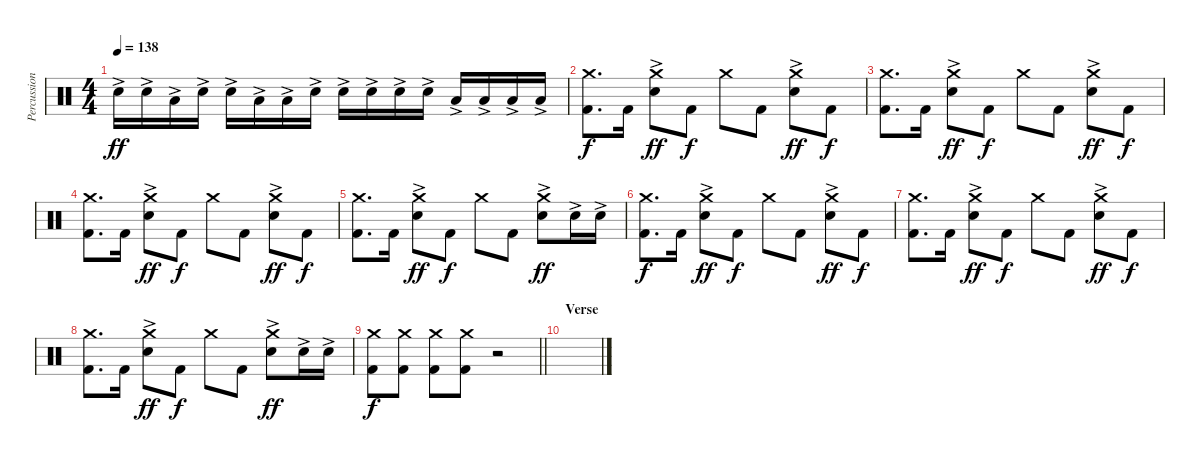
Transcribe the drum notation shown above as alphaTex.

\track ("Percussion" "Percussion") {instrument percussion}
\staff {score}
\articulation defaults
\ts (4 4)
\tempo 138
\clef neutral
\ks c "Electric Snare (hit)"{ac}.16{dy ff} "Electric Snare (hit)"{ac}.16 "Low Tom (hit)"{ac}.16 "Electric Snare (hit)"{ac}.16 "Electric Snare (hit)"{ac}.16 "Low Tom (hit)"{ac}.16 "Low Tom (hit)"{ac}.16 "Electric Snare (hit)"{ac}.16 "Electric Snare (hit)"{ac}.16 "Electric Snare (hit)"{ac}.16 "Electric Snare (hit)"{ac}.16 "Electric Snare (hit)"{ac}.16 "Low Tom (hit)"{ac}.16 "Low Tom (hit)"{ac}.16 "Low Tom (hit)"{ac}.16 "Low Tom (hit)"{ac}.16
|
("Crash medium (hit)" "Kick (hit) 2").8{d dy f} "Kick (hit) 2".16 ("Crash medium (hit)" "Electric Snare (hit)"{ac}).8{dy ff} "Kick (hit) 2".8{dy f} "Crash medium (hit)".8 "Kick (hit) 2".8 ("Crash medium (hit)" "Electric Snare (hit)"{ac}).8{dy ff} "Kick (hit) 2".8{dy f} |
("Crash medium (hit)" "Kick (hit) 2").8{d} "Kick (hit) 2".16 ("Crash medium (hit)" "Electric Snare (hit)"{ac}).8{dy ff} "Kick (hit) 2".8{dy f} "Crash medium (hit)".8 "Kick (hit) 2".8 ("Crash medium (hit)" "Electric Snare (hit)"{ac}).8{dy ff} "Kick (hit) 2".8{dy f} |
("Crash medium (hit)" "Kick (hit) 2").8{d} "Kick (hit) 2".16 ("Crash medium (hit)" "Electric Snare (hit)"{ac}).8{dy ff} "Kick (hit) 2".8{dy f} "Crash medium (hit)".8 "Kick (hit) 2".8 ("Crash medium (hit)" "Electric Snare (hit)"{ac}).8{dy ff} "Kick (hit) 2".8{dy f} |
("Crash medium (hit)" "Kick (hit) 2").8{d} "Kick (hit) 2".16 ("Crash medium (hit)" "Electric Snare (hit)"{ac}).8{dy ff} "Kick (hit) 2".8{dy f} "Crash medium (hit)".8 "Kick (hit) 2".8 ("Crash medium (hit)" "Electric Snare (hit)"{ac}).8{dy ff} "Electric Snare (hit)"{ac}.16 "Electric Snare (hit)"{ac}.16 |
("Crash medium (hit)" "Kick (hit) 2").8{d dy f} "Kick (hit) 2".16 ("Crash medium (hit)" "Electric Snare (hit)"{ac}).8{dy ff} "Kick (hit) 2".8{dy f} "Crash medium (hit)".8 "Kick (hit) 2".8 ("Crash medium (hit)" "Electric Snare (hit)"{ac}).8{dy ff} "Kick (hit) 2".8{dy f} |
("Crash medium (hit)" "Kick (hit) 2").8{d} "Kick (hit) 2".16 ("Crash medium (hit)" "Electric Snare (hit)"{ac}).8{dy ff} "Kick (hit) 2".8{dy f} "Crash medium (hit)".8 "Kick (hit) 2".8 ("Crash medium (hit)" "Electric Snare (hit)"{ac}).8{dy ff} "Kick (hit) 2".8{dy f} |
("Crash medium (hit)" "Kick (hit) 2").8{d} "Kick (hit) 2".16 ("Crash medium (hit)" "Electric Snare (hit)"{ac}).8{dy ff} "Kick (hit) 2".8{dy f} "Crash medium (hit)".8 "Kick (hit) 2".8 ("Crash medium (hit)" "Electric Snare (hit)"{ac}).8{dy ff} "Electric Snare (hit)"{ac}.16 "Electric Snare (hit)"{ac}.16 |
\barLineRight lightlight
("Crash medium (hit)" "Kick (hit) 2").8{dy f} ("Crash medium (hit)" "Kick (hit) 2").8 ("Crash medium (hit)" "Kick (hit) 2").8 ("Crash medium (hit)" "Kick (hit) 2").8 r.2 |
\section ("" "Verse")
